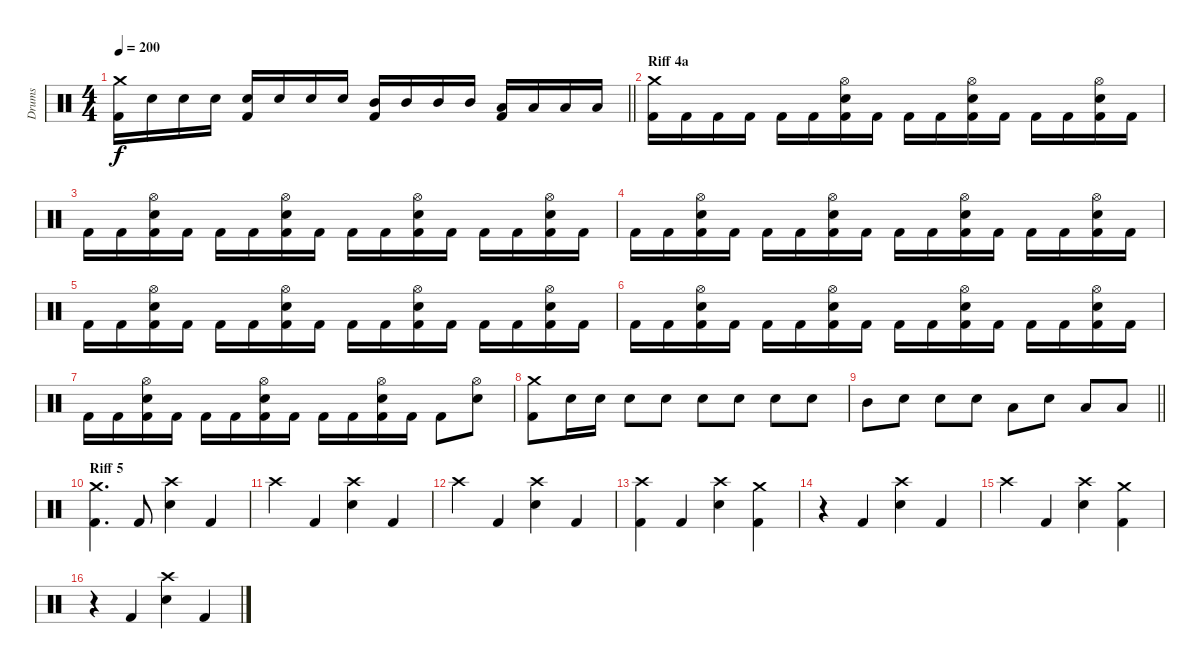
\track ("Drums" "Drums") {instrument percussion}
\staff {score}
\articulation defaults
\ts (4 4)
\tempo 200
\clef neutral
\barLineRight lightlight
\ks c
("Crash medium (hit)" "Kick (hit) 2").16{dy f} "Electric Snare (hit)".16 "Electric Snare (hit)".16 "Electric Snare (hit)".16 ("Electric Snare (hit)" "Kick (hit) 2").16 "Electric Snare (hit)".16 "Electric Snare (hit)".16 "Electric Snare (hit)".16 ("Mid Tom (hit)" "Kick (hit) 2").16 "Mid Tom (hit)".16 "Mid Tom (hit)".16 "Mid Tom (hit)".16 ("Low Tom (hit)" "Kick (hit) 2").16 "Low Tom (hit)".16 "Low Tom (hit)".16 "Low Tom (hit)".16 |
\section ("" "Riff 4a")
("Crash medium (hit)" "Kick (hit) 2").16 "Kick (hit) 2".16 "Kick (hit) 2".16 "Kick (hit) 2".16 "Kick (hit) 2".16 "Kick (hit) 2".16 ("Kick (hit) 2" "Electric Snare (hit)" "Hi-Hat (open)").16 "Kick (hit) 2".16 "Kick (hit) 2".16 "Kick (hit) 2".16 ("Kick (hit) 2" "Electric Snare (hit)" "Hi-Hat (open)").16 "Kick (hit) 2".16 "Kick (hit) 2".16 "Kick (hit) 2".16 ("Kick (hit) 2" "Electric Snare (hit)" "Hi-Hat (open)").16 "Kick (hit) 2".16 |
"Kick (hit) 2".16 "Kick (hit) 2".16 ("Kick (hit) 2" "Electric Snare (hit)" "Hi-Hat (open)").16 "Kick (hit) 2".16 "Kick (hit) 2".16 "Kick (hit) 2".16 ("Kick (hit) 2" "Electric Snare (hit)" "Hi-Hat (open)").16 "Kick (hit) 2".16 "Kick (hit) 2".16 "Kick (hit) 2".16 ("Kick (hit) 2" "Electric Snare (hit)" "Hi-Hat (open)").16 "Kick (hit) 2".16 "Kick (hit) 2".16 "Kick (hit) 2".16 ("Kick (hit) 2" "Electric Snare (hit)" "Hi-Hat (open)").16 "Kick (hit) 2".16 |
"Kick (hit) 2".16 "Kick (hit) 2".16 ("Kick (hit) 2" "Electric Snare (hit)" "Hi-Hat (open)").16 "Kick (hit) 2".16 "Kick (hit) 2".16 "Kick (hit) 2".16 ("Kick (hit) 2" "Electric Snare (hit)" "Hi-Hat (open)").16 "Kick (hit) 2".16 "Kick (hit) 2".16 "Kick (hit) 2".16 ("Kick (hit) 2" "Electric Snare (hit)" "Hi-Hat (open)").16 "Kick (hit) 2".16 "Kick (hit) 2".16 "Kick (hit) 2".16 ("Kick (hit) 2" "Electric Snare (hit)" "Hi-Hat (open)").16 "Kick (hit) 2".16 |
"Kick (hit) 2".16 "Kick (hit) 2".16 ("Kick (hit) 2" "Electric Snare (hit)" "Hi-Hat (open)").16 "Kick (hit) 2".16 "Kick (hit) 2".16 "Kick (hit) 2".16 ("Kick (hit) 2" "Electric Snare (hit)" "Hi-Hat (open)").16 "Kick (hit) 2".16 "Kick (hit) 2".16 "Kick (hit) 2".16 ("Kick (hit) 2" "Electric Snare (hit)" "Hi-Hat (open)").16 "Kick (hit) 2".16 "Kick (hit) 2".16 "Kick (hit) 2".16 ("Kick (hit) 2" "Electric Snare (hit)" "Hi-Hat (open)").16 "Kick (hit) 2".16 |
"Kick (hit) 2".16 "Kick (hit) 2".16 ("Kick (hit) 2" "Electric Snare (hit)" "Hi-Hat (open)").16 "Kick (hit) 2".16 "Kick (hit) 2".16 "Kick (hit) 2".16 ("Kick (hit) 2" "Electric Snare (hit)" "Hi-Hat (open)").16 "Kick (hit) 2".16 "Kick (hit) 2".16 "Kick (hit) 2".16 ("Kick (hit) 2" "Electric Snare (hit)" "Hi-Hat (open)").16 "Kick (hit) 2".16 "Kick (hit) 2".16 "Kick (hit) 2".16 ("Kick (hit) 2" "Electric Snare (hit)" "Hi-Hat (open)").16 "Kick (hit) 2".16 |
"Kick (hit) 2".16 "Kick (hit) 2".16 ("Kick (hit) 2" "Electric Snare (hit)" "Hi-Hat (open)").16 "Kick (hit) 2".16 "Kick (hit) 2".16 "Kick (hit) 2".16 ("Kick (hit) 2" "Electric Snare (hit)" "Hi-Hat (open)").16 "Kick (hit) 2".16 "Kick (hit) 2".16 "Kick (hit) 2".16 ("Kick (hit) 2" "Electric Snare (hit)" "Hi-Hat (open)").16 "Kick (hit) 2".16 "Kick (hit) 2".8 ("Electric Snare (hit)" "Hi-Hat (open)").8 |
("Crash medium (hit)" "Kick (hit) 2").8 "Electric Snare (hit)".16 "Electric Snare (hit)".16 "Electric Snare (hit)".8 "Electric Snare (hit)".8 "Electric Snare (hit)".8 "Electric Snare (hit)".8 "Electric Snare (hit)".8 "Electric Snare (hit)".8 |
\barLineRight lightlight "Mid Tom (hit)".8 "Electric Snare (hit)".8 "Electric Snare (hit)".8 "Electric Snare (hit)".8 "Low Tom (hit)".8 "Electric Snare (hit)".8 "Low Floor Tom (hit)".8 "Low Floor Tom (hit)".8
|
\section ("" "Riff 5")
("Crash medium (hit)" "Kick (hit) 2").4{d} "Kick (hit) 2".8 ("Crash high (hit)" "Electric Snare (hit)").4 "Kick (hit) 2".4 |
"Crash high (hit)".4 "Kick (hit) 2".4 ("Electric Snare (hit)" "Crash high (hit)").4 "Kick (hit) 2".4 |
"Crash high (hit)".4 "Kick (hit) 2".4 ("Electric Snare (hit)" "Crash high (hit)").4 "Kick (hit) 2".4 |
("Crash high (hit)" "Kick (hit) 2").4 "Kick (hit) 2".4 ("Crash high (hit)" "Electric Snare (hit)").4 ("Kick (hit) 2" "Crash medium (hit)").4 |
r.4 "Kick (hit) 2".4 ("Electric Snare (hit)" "Crash high (hit)").4 "Kick (hit) 2".4 |
"Crash high (hit)".4 "Kick (hit) 2".4 ("Electric Snare (hit)" "Crash high (hit)").4 ("Crash medium (hit)" "Kick (hit) 2").4 |
r.4 "Kick (hit) 2".4 ("Electric Snare (hit)" "Crash high (hit)").4 "Kick (hit) 2".4
